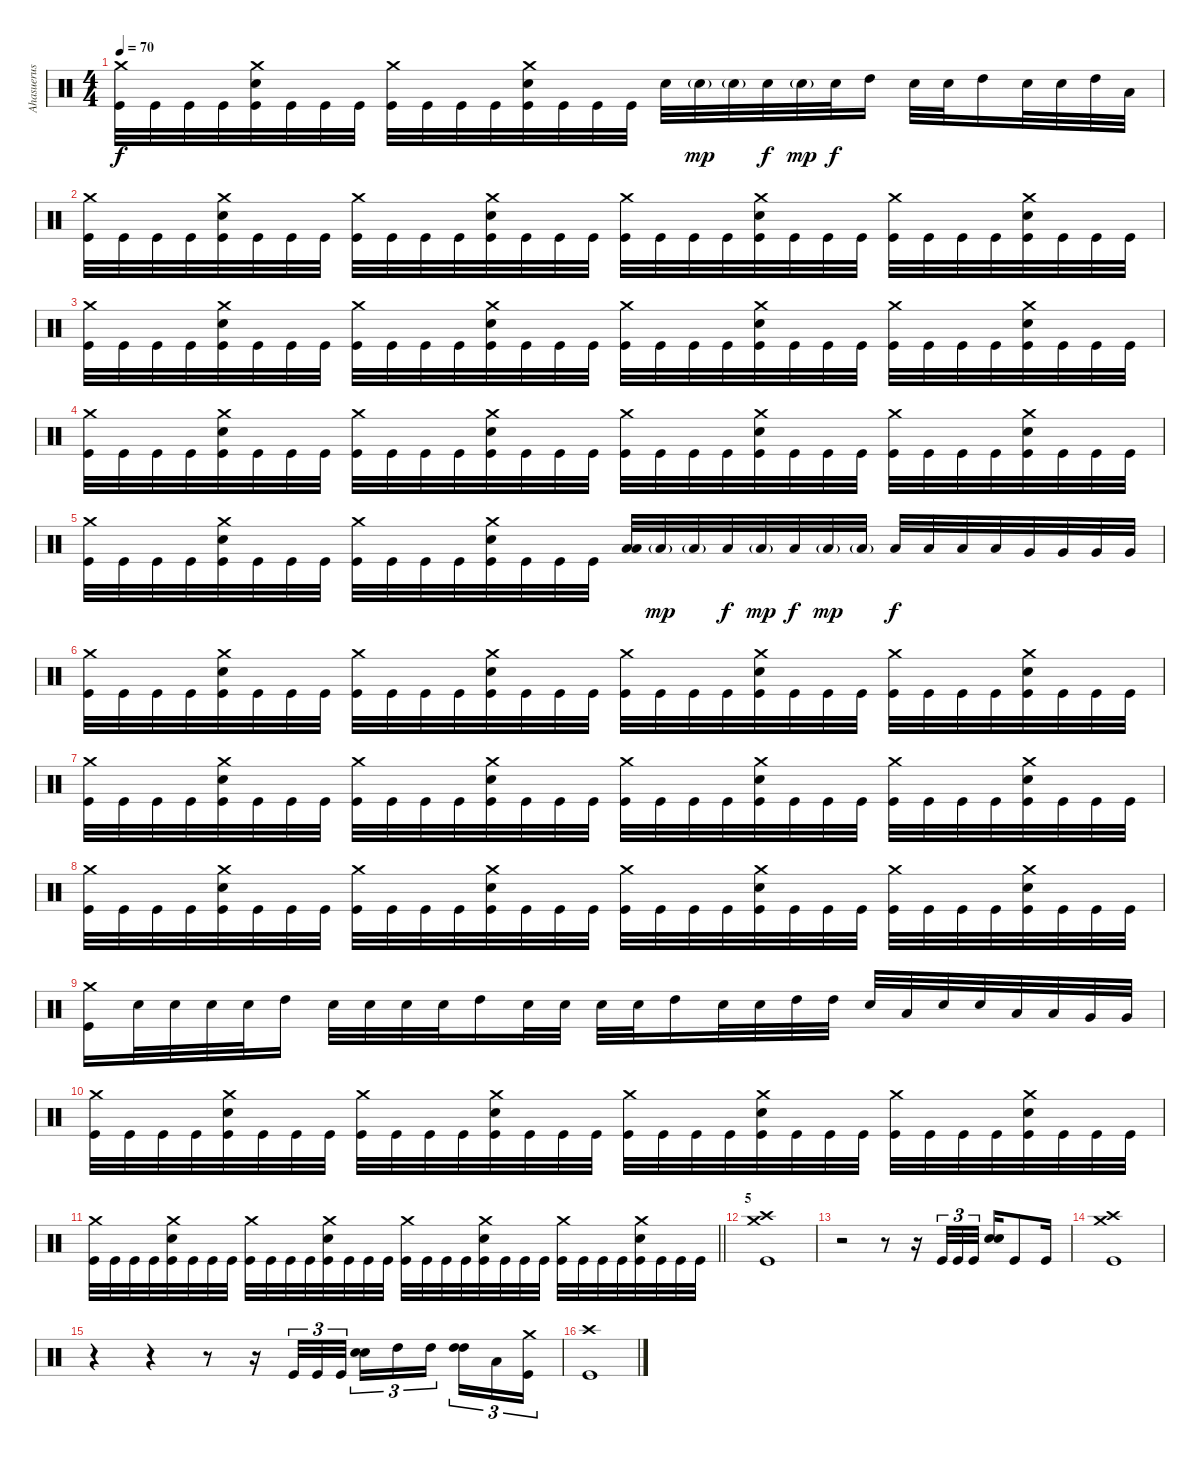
\track ("Ahasuerus" "Ahasuerus") {instrument percussion}
\staff {score}
\articulation defaults
\ts (4 4)
\tempo 70
\clef neutral
\ks c
("Crash medium (hit)" "Kick (hit)").32{dy f} "Kick (hit)".32 "Kick (hit)".32 "Kick (hit)".32 ("Crash medium (hit)" "Electric Snare (hit)" "Kick (hit)").32 "Kick (hit)".32 "Kick (hit)".32 "Kick (hit)".32 ("Crash medium (hit)" "Kick (hit)").32 "Kick (hit)".32 "Kick (hit)".32 "Kick (hit)".32 ("Crash medium (hit)" "Electric Snare (hit)" "Kick (hit)").32 "Kick (hit)".32 "Kick (hit)".32 "Kick (hit)".32 "Electric Snare (hit)".32 "Electric Snare (hit)"{g}.32{dy mp} "Electric Snare (hit)"{g}.32 "Electric Snare (hit)".32{dy f} "Electric Snare (hit)"{g}.32{dy mp} "Electric Snare (hit)".32{dy f} "High Tom (hit)".16 "Electric Snare (hit)".32 "Electric Snare (hit)".32 "High Tom (hit)".16 "Electric Snare (hit)".32 "Electric Snare (hit)".32 "High Tom (hit)".32 "Low Tom (hit)".32 |
("Crash medium (hit)" "Kick (hit)").32 "Kick (hit)".32 "Kick (hit)".32 "Kick (hit)".32 ("Crash medium (hit)" "Electric Snare (hit)" "Kick (hit)").32 "Kick (hit)".32 "Kick (hit)".32 "Kick (hit)".32 ("Crash medium (hit)" "Kick (hit)").32 "Kick (hit)".32 "Kick (hit)".32 "Kick (hit)".32 ("Crash medium (hit)" "Electric Snare (hit)" "Kick (hit)").32 "Kick (hit)".32 "Kick (hit)".32 "Kick (hit)".32 ("Crash medium (hit)" "Kick (hit)").32 "Kick (hit)".32 "Kick (hit)".32 "Kick (hit)".32 ("Crash medium (hit)" "Electric Snare (hit)" "Kick (hit)").32 "Kick (hit)".32 "Kick (hit)".32 "Kick (hit)".32 ("Crash medium (hit)" "Kick (hit)").32 "Kick (hit)".32 "Kick (hit)".32 "Kick (hit)".32 ("Crash medium (hit)" "Electric Snare (hit)" "Kick (hit)").32 "Kick (hit)".32 "Kick (hit)".32 "Kick (hit)".32 |
("Crash medium (hit)" "Kick (hit)").32 "Kick (hit)".32 "Kick (hit)".32 "Kick (hit)".32 ("Crash medium (hit)" "Electric Snare (hit)" "Kick (hit)").32 "Kick (hit)".32 "Kick (hit)".32 "Kick (hit)".32 ("Crash medium (hit)" "Kick (hit)").32 "Kick (hit)".32 "Kick (hit)".32 "Kick (hit)".32 ("Crash medium (hit)" "Electric Snare (hit)" "Kick (hit)").32 "Kick (hit)".32 "Kick (hit)".32 "Kick (hit)".32 ("Crash medium (hit)" "Kick (hit)").32 "Kick (hit)".32 "Kick (hit)".32 "Kick (hit)".32 ("Crash medium (hit)" "Electric Snare (hit)" "Kick (hit)").32 "Kick (hit)".32 "Kick (hit)".32 "Kick (hit)".32 ("Crash medium (hit)" "Kick (hit)").32 "Kick (hit)".32 "Kick (hit)".32 "Kick (hit)".32 ("Crash medium (hit)" "Electric Snare (hit)" "Kick (hit)").32 "Kick (hit)".32 "Kick (hit)".32 "Kick (hit)".32 |
("Crash medium (hit)" "Kick (hit)").32 "Kick (hit)".32 "Kick (hit)".32 "Kick (hit)".32 ("Crash medium (hit)" "Electric Snare (hit)" "Kick (hit)").32 "Kick (hit)".32 "Kick (hit)".32 "Kick (hit)".32 ("Crash medium (hit)" "Kick (hit)").32 "Kick (hit)".32 "Kick (hit)".32 "Kick (hit)".32 ("Crash medium (hit)" "Electric Snare (hit)" "Kick (hit)").32 "Kick (hit)".32 "Kick (hit)".32 "Kick (hit)".32 ("Crash medium (hit)" "Kick (hit)").32 "Kick (hit)".32 "Kick (hit)".32 "Kick (hit)".32 ("Crash medium (hit)" "Electric Snare (hit)" "Kick (hit)").32 "Kick (hit)".32 "Kick (hit)".32 "Kick (hit)".32 ("Crash medium (hit)" "Kick (hit)").32 "Kick (hit)".32 "Kick (hit)".32 "Kick (hit)".32 ("Crash medium (hit)" "Electric Snare (hit)" "Kick (hit)").32 "Kick (hit)".32 "Kick (hit)".32 "Kick (hit)".32 |
("Crash medium (hit)" "Kick (hit)").32 "Kick (hit)".32 "Kick (hit)".32 "Kick (hit)".32 ("Crash medium (hit)" "Electric Snare (hit)" "Kick (hit)").32 "Kick (hit)".32 "Kick (hit)".32 "Kick (hit)".32 ("Crash medium (hit)" "Kick (hit)").32 "Kick (hit)".32 "Kick (hit)".32 "Kick (hit)".32 ("Crash medium (hit)" "Electric Snare (hit)" "Kick (hit)").32 "Kick (hit)".32 "Kick (hit)".32 "Kick (hit)".32 ("Low Tom (hit)" "Low Tom (hit)").32{bu 240} "Low Tom (hit)"{g}.32{dy mp} "Low Tom (hit)"{g}.32 "Low Tom (hit)".32{dy f} "Low Tom (hit)"{g}.32{dy mp} "Low Tom (hit)".32{dy f} "Low Tom (hit)"{g}.32{dy mp} "Low Tom (hit)"{g}.32 "Low Tom (hit)".32{dy f} "Low Tom (hit)".32 "Low Tom (hit)".32 "Low Tom (hit)".32 "Very Low Tom (hit)".32 "Very Low Tom (hit)".32 "Very Low Tom (hit)".32 "Very Low Tom (hit)".32 |
("Crash medium (hit)" "Kick (hit)").32 "Kick (hit)".32 "Kick (hit)".32 "Kick (hit)".32 ("Crash medium (hit)" "Electric Snare (hit)" "Kick (hit)").32 "Kick (hit)".32 "Kick (hit)".32 "Kick (hit)".32 ("Crash medium (hit)" "Kick (hit)").32 "Kick (hit)".32 "Kick (hit)".32 "Kick (hit)".32 ("Crash medium (hit)" "Electric Snare (hit)" "Kick (hit)").32 "Kick (hit)".32 "Kick (hit)".32 "Kick (hit)".32 ("Crash medium (hit)" "Kick (hit)").32 "Kick (hit)".32 "Kick (hit)".32 "Kick (hit)".32 ("Crash medium (hit)" "Electric Snare (hit)" "Kick (hit)").32 "Kick (hit)".32 "Kick (hit)".32 "Kick (hit)".32 ("Crash medium (hit)" "Kick (hit)").32 "Kick (hit)".32 "Kick (hit)".32 "Kick (hit)".32 ("Crash medium (hit)" "Electric Snare (hit)" "Kick (hit)").32 "Kick (hit)".32 "Kick (hit)".32 "Kick (hit)".32 |
("Crash medium (hit)" "Kick (hit)").32 "Kick (hit)".32 "Kick (hit)".32 "Kick (hit)".32 ("Crash medium (hit)" "Electric Snare (hit)" "Kick (hit)").32 "Kick (hit)".32 "Kick (hit)".32 "Kick (hit)".32 ("Crash medium (hit)" "Kick (hit)").32 "Kick (hit)".32 "Kick (hit)".32 "Kick (hit)".32 ("Crash medium (hit)" "Electric Snare (hit)" "Kick (hit)").32 "Kick (hit)".32 "Kick (hit)".32 "Kick (hit)".32 ("Crash medium (hit)" "Kick (hit)").32 "Kick (hit)".32 "Kick (hit)".32 "Kick (hit)".32 ("Crash medium (hit)" "Electric Snare (hit)" "Kick (hit)").32 "Kick (hit)".32 "Kick (hit)".32 "Kick (hit)".32 ("Crash medium (hit)" "Kick (hit)").32 "Kick (hit)".32 "Kick (hit)".32 "Kick (hit)".32 ("Crash medium (hit)" "Electric Snare (hit)" "Kick (hit)").32 "Kick (hit)".32 "Kick (hit)".32 "Kick (hit)".32 |
("Crash medium (hit)" "Kick (hit)").32 "Kick (hit)".32 "Kick (hit)".32 "Kick (hit)".32 ("Crash medium (hit)" "Electric Snare (hit)" "Kick (hit)").32 "Kick (hit)".32 "Kick (hit)".32 "Kick (hit)".32 ("Crash medium (hit)" "Kick (hit)").32 "Kick (hit)".32 "Kick (hit)".32 "Kick (hit)".32 ("Crash medium (hit)" "Electric Snare (hit)" "Kick (hit)").32 "Kick (hit)".32 "Kick (hit)".32 "Kick (hit)".32 ("Crash medium (hit)" "Kick (hit)").32 "Kick (hit)".32 "Kick (hit)".32 "Kick (hit)".32 ("Crash medium (hit)" "Electric Snare (hit)" "Kick (hit)").32 "Kick (hit)".32 "Kick (hit)".32 "Kick (hit)".32 ("Crash medium (hit)" "Kick (hit)").32 "Kick (hit)".32 "Kick (hit)".32 "Kick (hit)".32 ("Crash medium (hit)" "Electric Snare (hit)" "Kick (hit)").32 "Kick (hit)".32 "Kick (hit)".32 "Kick (hit)".32 |
("Crash medium (hit)" "Kick (hit)").16 "Electric Snare (hit)".32 "Electric Snare (hit)".32 "Electric Snare (hit)".32 "Electric Snare (hit)".32 "High Tom (hit)".16 "Electric Snare (hit)".32 "Electric Snare (hit)".32 "Electric Snare (hit)".32 "Electric Snare (hit)".32 "High Tom (hit)".16 "Electric Snare (hit)".32 "Electric Snare (hit)".32 "Electric Snare (hit)".32 "Electric Snare (hit)".32 "High Tom (hit)".16 "Electric Snare (hit)".32 "Electric Snare (hit)".32 "High Tom (hit)".32 "High Tom (hit)".32 "Electric Snare (hit)".32 "Low Tom (hit)".32 "Electric Snare (hit)".32 "Electric Snare (hit)".32 "Low Tom (hit)".32 "Low Tom (hit)".32 "Very Low Tom (hit)".32 "Very Low Tom (hit)".32 |
("Crash medium (hit)" "Kick (hit)").32 "Kick (hit)".32 "Kick (hit)".32 "Kick (hit)".32 ("Crash medium (hit)" "Electric Snare (hit)" "Kick (hit)").32 "Kick (hit)".32 "Kick (hit)".32 "Kick (hit)".32 ("Crash medium (hit)" "Kick (hit)").32 "Kick (hit)".32 "Kick (hit)".32 "Kick (hit)".32 ("Crash medium (hit)" "Electric Snare (hit)" "Kick (hit)").32 "Kick (hit)".32 "Kick (hit)".32 "Kick (hit)".32 ("Crash medium (hit)" "Kick (hit)").32 "Kick (hit)".32 "Kick (hit)".32 "Kick (hit)".32 ("Crash medium (hit)" "Electric Snare (hit)" "Kick (hit)").32 "Kick (hit)".32 "Kick (hit)".32 "Kick (hit)".32 ("Crash medium (hit)" "Kick (hit)").32 "Kick (hit)".32 "Kick (hit)".32 "Kick (hit)".32 ("Crash medium (hit)" "Electric Snare (hit)" "Kick (hit)").32 "Kick (hit)".32 "Kick (hit)".32 "Kick (hit)".32 |
\barLineRight lightlight
("Crash medium (hit)" "Kick (hit)").32 "Kick (hit)".32 "Kick (hit)".32 "Kick (hit)".32 ("Crash medium (hit)" "Electric Snare (hit)" "Kick (hit)").32 "Kick (hit)".32 "Kick (hit)".32 "Kick (hit)".32 ("Crash medium (hit)" "Kick (hit)").32 "Kick (hit)".32 "Kick (hit)".32 "Kick (hit)".32 ("Crash medium (hit)" "Electric Snare (hit)" "Kick (hit)").32 "Kick (hit)".32 "Kick (hit)".32 "Kick (hit)".32 ("Crash medium (hit)" "Kick (hit)").32 "Kick (hit)".32 "Kick (hit)".32 "Kick (hit)".32 ("Crash medium (hit)" "Electric Snare (hit)" "Kick (hit)").32 "Kick (hit)".32 "Kick (hit)".32 "Kick (hit)".32 ("Crash medium (hit)" "Kick (hit)").32 "Kick (hit)".32 "Kick (hit)".32 "Kick (hit)".32 ("Crash medium (hit)" "Electric Snare (hit)" "Kick (hit)").32 "Kick (hit)".32 "Kick (hit)".32 "Kick (hit)".32 |
\section ("" "5")
("Crash high (hit)" "Crash medium (hit)" "Kick (hit)").1 |
r.2 r.8 r.16 "Kick (hit)".32{tu (3 2)} "Kick (hit)".32{tu (3 2)} "Kick (hit)".32{tu (3 2)} ("Electric Snare (hit)" "Electric Snare (hit)").16{bu 240} "Kick (hit)".8 "Kick (hit)".16 |
("Crash high (hit)" "Crash medium (hit)" "Kick (hit)").1 |
r.4 r.4 r.8 r.16 "Kick (hit)".32{tu (3 2)} "Kick (hit)".32{tu (3 2)} "Kick (hit)".32{tu (3 2)} ("Electric Snare (hit)" "Electric Snare (hit)").16{tu (3 2) bu 240} "High Tom (hit)".16{tu (3 2)} "High Tom (hit)".16{tu (3 2) beam splitsecondary} ("High Tom (hit)" "High Tom (hit)").16{tu (3 2) bu 240} "Low Tom (hit)".16{tu (3 2)} ("Crash medium (hit)" "Kick (hit)").16{tu (3 2)} |
("Crash high (hit)" "Kick (hit)").1
